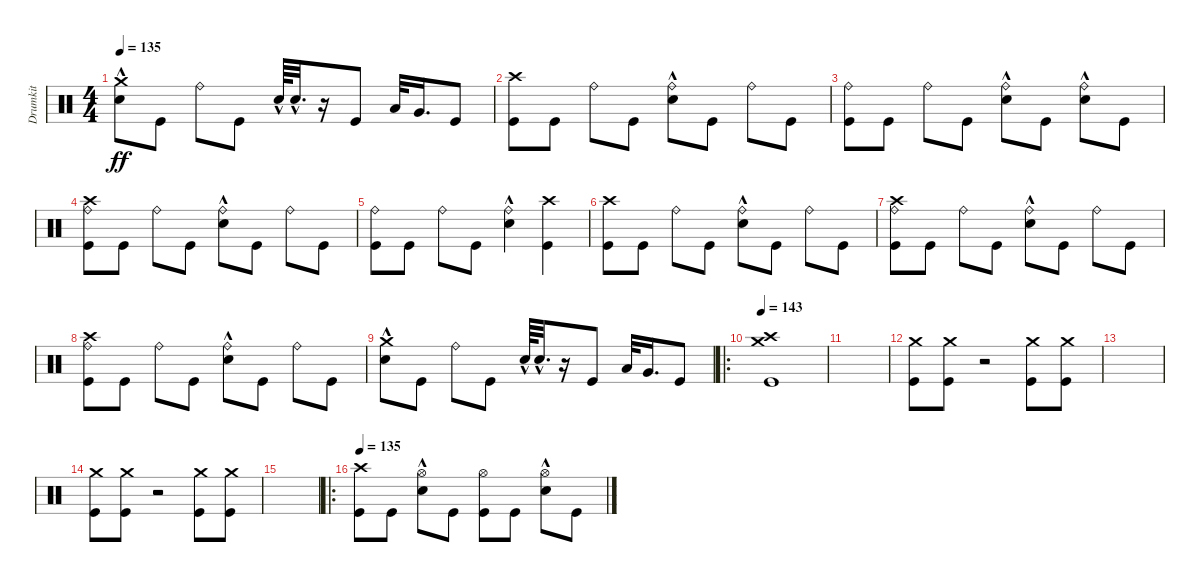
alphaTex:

\track ("Drumkit" "Drumkit") {instrument percussion}
\staff {score}
\articulation defaults
\ts (4 4)
\tempo 135
\clef neutral
\ks c
("Snare (hit) 2"{hac} "Crash medium (hit)").8{dy ff} "Kick (hit)".8 "Ride (bell)".8 "Kick (hit)".8 "Snare (hit) 2"{hac}.64 "Snare (hit) 2"{hac}.32{d} r.16 "Kick (hit)".8 "Low Tom (hit)".32 "Very Low Tom (hit)".16{d} "Kick (hit)".8 |
("Kick (hit)" "Crash high (hit)").8 "Kick (hit)".8 "Ride (bell)".8 "Kick (hit)".8 ("Ride (bell)" "Snare (hit) 2"{hac}).8 "Kick (hit)".8 "Ride (bell)".8 "Kick (hit)".8 |
("Ride (bell)" "Kick (hit)").8 "Kick (hit)".8 "Ride (bell)".8 "Kick (hit)".8 ("Snare (hit) 2"{hac} "Ride (bell)").8 "Kick (hit)".8 ("Snare (hit) 2"{hac} "Ride (bell)").8 "Kick (hit)".8 |
("Kick (hit)" "Crash high (hit)" "Ride (bell)").8 "Kick (hit)".8 "Ride (bell)".8 "Kick (hit)".8 ("Ride (bell)" "Snare (hit) 2"{hac}).8 "Kick (hit)".8 "Ride (bell)".8 "Kick (hit)".8 |
("Ride (bell)" "Kick (hit)").8 "Kick (hit)".8 "Ride (bell)".8 "Kick (hit)".8 ("Ride (bell)" "Snare (hit) 2"{hac}).4 ("Kick (hit)" "Crash high (hit)").4 |
("Kick (hit)" "Crash high (hit)").8 "Kick (hit)".8 "Ride (bell)".8 "Kick (hit)".8 ("Ride (bell)" "Snare (hit) 2"{hac}).8 "Kick (hit)".8 "Ride (bell)".8 "Kick (hit)".8 |
("Kick (hit)" "Crash high (hit)" "Ride (bell)").8 "Kick (hit)".8 "Ride (bell)".8 "Kick (hit)".8 ("Ride (bell)" "Snare (hit) 2"{hac}).8 "Kick (hit)".8 "Ride (bell)".8 "Kick (hit)".8 |
("Kick (hit)" "Crash high (hit)" "Ride (bell)").8 "Kick (hit)".8 "Ride (bell)".8 "Kick (hit)".8 ("Ride (bell)" "Snare (hit) 2"{hac}).8 "Kick (hit)".8 "Ride (bell)".8 "Kick (hit)".8 |
("Snare (hit) 2"{hac} "Crash medium (hit)").8 "Kick (hit)".8 "Ride (bell)".8 "Kick (hit)".8 "Snare (hit) 2"{hac}.64 "Snare (hit) 2"{hac}.32{d} r.16 "Kick (hit)".8 "Low Tom (hit)".32 "Very Low Tom (hit)".16{d} "Kick (hit)".8 |
\ro
\tempo 143
("Kick (hit)" "Crash high (hit)" "Crash medium (hit)").1 |
|
("Kick (hit)" "Crash medium (hit)").8 ("Crash medium (hit)" "Kick (hit)").8 r.2 ("Kick (hit)" "Crash medium (hit)").8 ("Kick (hit)" "Crash medium (hit)").8 |
|
("Kick (hit)" "Crash medium (hit)").8 ("Crash medium (hit)" "Kick (hit)").8 r.2 ("Kick (hit)" "Crash medium (hit)").8 ("Kick (hit)" "Crash medium (hit)").8 |
|
\ro
\tempo 135
("Kick (hit)" "Crash high (hit)").8 "Kick (hit)".8 ("Snare (hit) 2"{hac} "Hi-Hat (open)").8 "Kick (hit)".8 ("Kick (hit)" "Hi-Hat (open)").8 "Kick (hit)".8 ("Snare (hit) 2"{hac} "Hi-Hat (open)").8 "Kick (hit)".8
